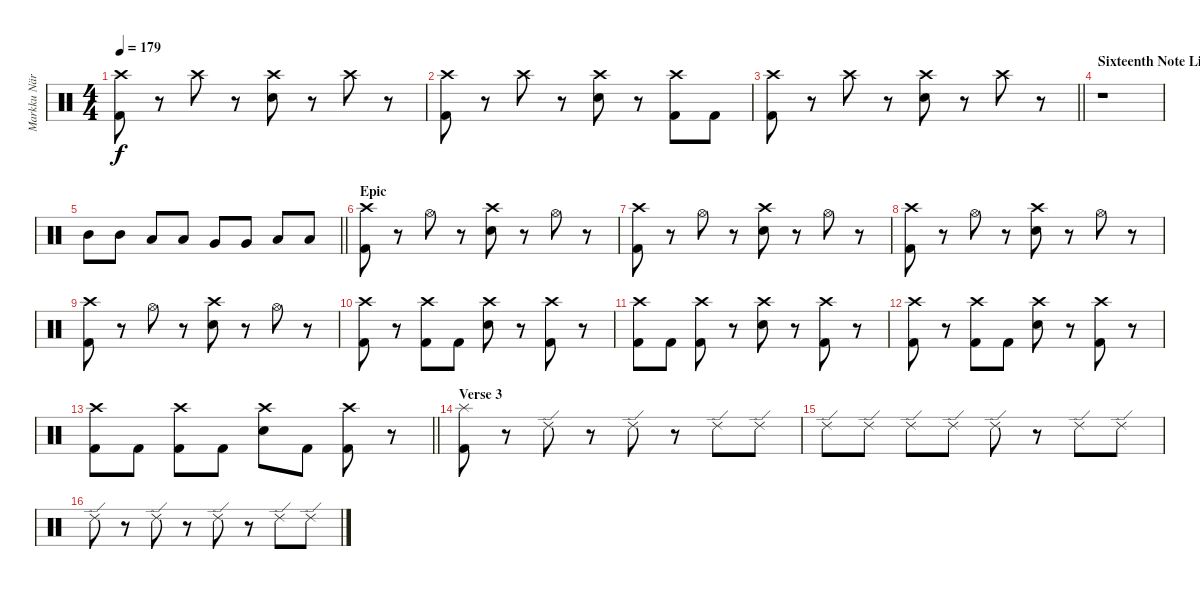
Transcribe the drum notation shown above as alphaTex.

\track ("Markku Näreneva (Drums)" "Markku När") {instrument percussion}
\staff {score}
\articulation defaults
\ts (4 4)
\tempo 179
\clef neutral
\ks c
("Kick (hit) 2" "Crash high (hit)").8{dy f} r.8 "Crash high (hit)".8 r.8 ("Snare (hit) 2" "Crash high (hit)").8 r.8 "Crash high (hit)".8 r.8 |
("Kick (hit) 2" "Crash high (hit)").8 r.8 "Crash high (hit)".8 r.8 ("Snare (hit) 2" "Crash high (hit)").8 r.8 ("Kick (hit) 2" "Crash high (hit)").8 "Kick (hit) 2".8 |
\barLineRight lightlight
("Kick (hit) 2" "Crash high (hit)").8 r.8 "Crash high (hit)".8 r.8 ("Snare (hit) 2" "Crash high (hit)").8 r.8 "Crash high (hit)".8 r.8 |
\section ("" "Sixteenth Note Lick")
r.1 |
\barLineRight lightlight "Mid Tom (hit)".8 "Mid Tom (hit)".8 "Low Tom (hit)".8 "Low Tom (hit)".8 "Very Low Tom (hit)".8 "Very Low Tom (hit)".8 "Low Floor Tom (hit)".8 "Low Floor Tom (hit)".8
|
\section ("" "Epic")
("Kick (hit) 2" "Crash high (hit)").8 r.8 "Hi-Hat (open)".8 r.8 ("Snare (hit) 2" "Crash high (hit)").8 r.8 "Hi-Hat (open)".8 r.8 |
("Kick (hit) 2" "Crash high (hit)").8 r.8 "Hi-Hat (open)".8 r.8 ("Snare (hit) 2" "Crash high (hit)").8 r.8 "Hi-Hat (open)".8 r.8 |
("Kick (hit) 2" "Crash high (hit)").8 r.8 "Hi-Hat (open)".8 r.8 ("Snare (hit) 2" "Crash high (hit)").8 r.8 "Hi-Hat (open)".8 r.8 |
("Kick (hit) 2" "Crash high (hit)").8 r.8 "Hi-Hat (open)".8 r.8 ("Snare (hit) 2" "Crash high (hit)").8 r.8 "Hi-Hat (open)".8 r.8 |
("Kick (hit) 2" "Crash high (hit)").8 r.8 ("Kick (hit) 2" "Crash high (hit)").8 "Kick (hit) 2".8 ("Snare (hit) 2" "Crash high (hit)").8 r.8 ("Kick (hit) 2" "Crash high (hit)").8 r.8 |
("Kick (hit) 2" "Crash high (hit)").8 "Kick (hit) 2".8 ("Kick (hit) 2" "Crash high (hit)").8 r.8 ("Snare (hit) 2" "Crash high (hit)").8 r.8 ("Kick (hit) 2" "Crash high (hit)").8 r.8 |
("Kick (hit) 2" "Crash high (hit)").8 r.8 ("Kick (hit) 2" "Crash high (hit)").8 "Kick (hit) 2".8 ("Snare (hit) 2" "Crash high (hit)").8 r.8 ("Kick (hit) 2" "Crash high (hit)").8 r.8 |
\barLineRight lightlight
("Kick (hit) 2" "Crash high (hit)").8 "Kick (hit) 2".8 ("Kick (hit) 2" "Crash high (hit)").8 "Kick (hit) 2".8 ("Snare (hit) 2" "Crash high (hit)").8 "Kick (hit) 2".8 ("Kick (hit) 2" "Crash high (hit)").8 r.8 |
\section ("" "Verse 3")
("Kick (hit) 2" "Splash (hit)").8 r.8 "Ride (edge) 2".8 r.8 "Ride (edge) 2".8 r.8 "Ride (edge) 2".8 "Ride (edge) 2".8 |
"Ride (edge) 2".8 "Ride (edge) 2".8 "Ride (edge) 2".8 "Ride (edge) 2".8 "Ride (edge) 2".8 r.8 "Ride (edge) 2".8 "Ride (edge) 2".8 |
"Ride (edge) 2".8 r.8 "Ride (edge) 2".8 r.8 "Ride (edge) 2".8 r.8 "Ride (edge) 2".8 "Ride (edge) 2".8
